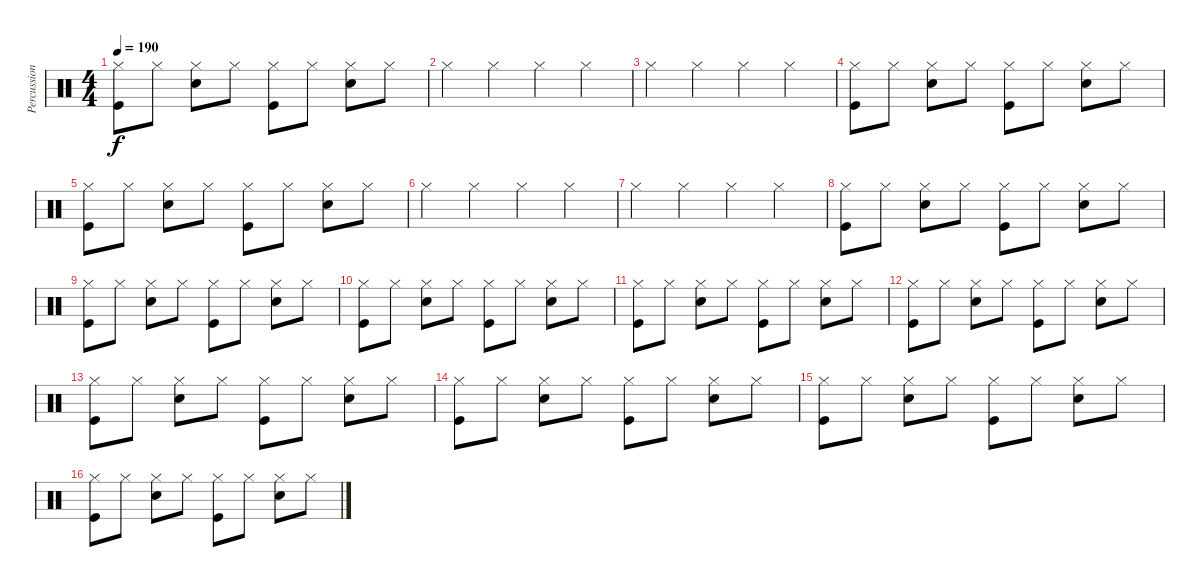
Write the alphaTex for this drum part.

\track ("Percussion" "Percussion") {instrument percussion}
\staff {score}
\articulation defaults
\ts (4 4)
\tempo 190
\clef neutral
\ks c
("Hi-Hat (closed)" "Kick (hit)").8{dy f} "Hi-Hat (closed)".8 ("Hi-Hat (closed)" "Electric Snare (hit)").8 "Hi-Hat (closed)".8 ("Hi-Hat (closed)" "Kick (hit)").8 "Hi-Hat (closed)".8 ("Hi-Hat (closed)" "Electric Snare (hit)").8 "Hi-Hat (closed)".8 |
"Hi-Hat (closed)".4 "Hi-Hat (closed)".4 "Hi-Hat (closed)".4 "Hi-Hat (closed)".4 |
"Hi-Hat (closed)".4 "Hi-Hat (closed)".4 "Hi-Hat (closed)".4 "Hi-Hat (closed)".4 |
("Hi-Hat (closed)" "Kick (hit)").8 "Hi-Hat (closed)".8 ("Hi-Hat (closed)" "Electric Snare (hit)").8 "Hi-Hat (closed)".8 ("Hi-Hat (closed)" "Kick (hit)").8 "Hi-Hat (closed)".8 ("Hi-Hat (closed)" "Electric Snare (hit)").8 "Hi-Hat (closed)".8 |
("Hi-Hat (closed)" "Kick (hit)").8 "Hi-Hat (closed)".8 ("Hi-Hat (closed)" "Electric Snare (hit)").8 "Hi-Hat (closed)".8 ("Hi-Hat (closed)" "Kick (hit)").8 "Hi-Hat (closed)".8 ("Hi-Hat (closed)" "Electric Snare (hit)").8 "Hi-Hat (closed)".8 |
"Hi-Hat (closed)".4 "Hi-Hat (closed)".4 "Hi-Hat (closed)".4 "Hi-Hat (closed)".4 |
"Hi-Hat (closed)".4 "Hi-Hat (closed)".4 "Hi-Hat (closed)".4 "Hi-Hat (closed)".4 |
("Hi-Hat (closed)" "Kick (hit)").8 "Hi-Hat (closed)".8 ("Hi-Hat (closed)" "Electric Snare (hit)").8 "Hi-Hat (closed)".8 ("Hi-Hat (closed)" "Kick (hit)").8 "Hi-Hat (closed)".8 ("Hi-Hat (closed)" "Electric Snare (hit)").8 "Hi-Hat (closed)".8 |
("Hi-Hat (closed)" "Kick (hit)").8 "Hi-Hat (closed)".8 ("Hi-Hat (closed)" "Electric Snare (hit)").8 "Hi-Hat (closed)".8 ("Hi-Hat (closed)" "Kick (hit)").8 "Hi-Hat (closed)".8 ("Hi-Hat (closed)" "Electric Snare (hit)").8 "Hi-Hat (closed)".8 |
("Hi-Hat (closed)" "Kick (hit)").8 "Hi-Hat (closed)".8 ("Hi-Hat (closed)" "Electric Snare (hit)").8 "Hi-Hat (closed)".8 ("Hi-Hat (closed)" "Kick (hit)").8 "Hi-Hat (closed)".8 ("Hi-Hat (closed)" "Electric Snare (hit)").8 "Hi-Hat (closed)".8 |
("Hi-Hat (closed)" "Kick (hit)").8 "Hi-Hat (closed)".8 ("Hi-Hat (closed)" "Electric Snare (hit)").8 "Hi-Hat (closed)".8 ("Hi-Hat (closed)" "Kick (hit)").8 "Hi-Hat (closed)".8 ("Hi-Hat (closed)" "Electric Snare (hit)").8 "Hi-Hat (closed)".8 |
("Hi-Hat (closed)" "Kick (hit)").8 "Hi-Hat (closed)".8 ("Hi-Hat (closed)" "Electric Snare (hit)").8 "Hi-Hat (closed)".8 ("Hi-Hat (closed)" "Kick (hit)").8 "Hi-Hat (closed)".8 ("Hi-Hat (closed)" "Electric Snare (hit)").8 "Hi-Hat (closed)".8 |
("Hi-Hat (closed)" "Kick (hit)").8 "Hi-Hat (closed)".8 ("Hi-Hat (closed)" "Electric Snare (hit)").8 "Hi-Hat (closed)".8 ("Hi-Hat (closed)" "Kick (hit)").8 "Hi-Hat (closed)".8 ("Hi-Hat (closed)" "Electric Snare (hit)").8 "Hi-Hat (closed)".8 |
("Hi-Hat (closed)" "Kick (hit)").8 "Hi-Hat (closed)".8 ("Hi-Hat (closed)" "Electric Snare (hit)").8 "Hi-Hat (closed)".8 ("Hi-Hat (closed)" "Kick (hit)").8 "Hi-Hat (closed)".8 ("Hi-Hat (closed)" "Electric Snare (hit)").8 "Hi-Hat (closed)".8 |
("Hi-Hat (closed)" "Kick (hit)").8 "Hi-Hat (closed)".8 ("Hi-Hat (closed)" "Electric Snare (hit)").8 "Hi-Hat (closed)".8 ("Hi-Hat (closed)" "Kick (hit)").8 "Hi-Hat (closed)".8 ("Hi-Hat (closed)" "Electric Snare (hit)").8 "Hi-Hat (closed)".8 |
("Hi-Hat (closed)" "Kick (hit)").8 "Hi-Hat (closed)".8 ("Hi-Hat (closed)" "Electric Snare (hit)").8 "Hi-Hat (closed)".8 ("Hi-Hat (closed)" "Kick (hit)").8 "Hi-Hat (closed)".8 ("Hi-Hat (closed)" "Electric Snare (hit)").8 "Hi-Hat (closed)".8
